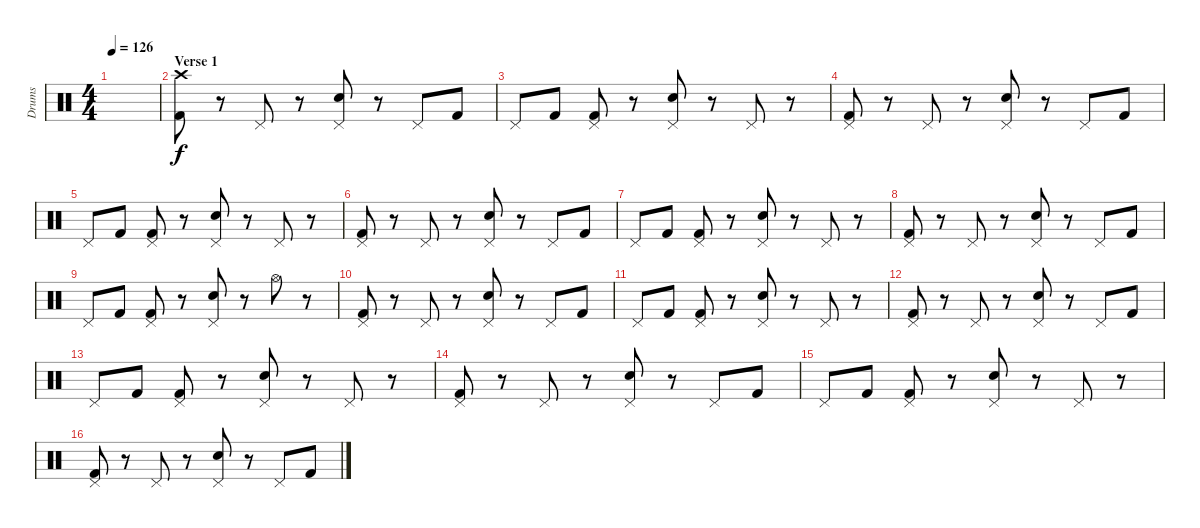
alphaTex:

\track ("Drums" "Drums") {instrument percussion}
\staff {score}
\articulation defaults
\ts (4 4)
\tempo 126
\clef neutral
\ks c
|
\section ("" "Verse 1")
("Crash high (hit)" "Kick (hit) 2").8 r.8 "Pedal Hi-Hat (hit)".8 r.8 ("Pedal Hi-Hat (hit)" "Electric Snare (hit)").8 r.8 "Pedal Hi-Hat (hit)".8 "Kick (hit) 2".8 |
"Pedal Hi-Hat (hit)".8 "Kick (hit) 2".8 ("Pedal Hi-Hat (hit)" "Kick (hit) 2").8 r.8 ("Pedal Hi-Hat (hit)" "Electric Snare (hit)").8 r.8 "Pedal Hi-Hat (hit)".8 r.8 |
("Pedal Hi-Hat (hit)" "Kick (hit) 2").8 r.8 "Pedal Hi-Hat (hit)".8 r.8 ("Pedal Hi-Hat (hit)" "Electric Snare (hit)").8 r.8 "Pedal Hi-Hat (hit)".8 "Kick (hit) 2".8 |
"Pedal Hi-Hat (hit)".8 "Kick (hit) 2".8 ("Pedal Hi-Hat (hit)" "Kick (hit) 2").8 r.8 ("Pedal Hi-Hat (hit)" "Electric Snare (hit)").8 r.8 "Pedal Hi-Hat (hit)".8 r.8 |
("Pedal Hi-Hat (hit)" "Kick (hit) 2").8 r.8 "Pedal Hi-Hat (hit)".8 r.8 ("Pedal Hi-Hat (hit)" "Electric Snare (hit)").8 r.8 "Pedal Hi-Hat (hit)".8 "Kick (hit) 2".8 |
"Pedal Hi-Hat (hit)".8 "Kick (hit) 2".8 ("Pedal Hi-Hat (hit)" "Kick (hit) 2").8 r.8 ("Pedal Hi-Hat (hit)" "Electric Snare (hit)").8 r.8 "Pedal Hi-Hat (hit)".8 r.8 |
("Pedal Hi-Hat (hit)" "Kick (hit) 2").8 r.8 "Pedal Hi-Hat (hit)".8 r.8 ("Pedal Hi-Hat (hit)" "Electric Snare (hit)").8 r.8 "Pedal Hi-Hat (hit)".8 "Kick (hit) 2".8 |
"Pedal Hi-Hat (hit)".8 "Kick (hit) 2".8 ("Pedal Hi-Hat (hit)" "Kick (hit) 2").8 r.8 ("Pedal Hi-Hat (hit)" "Electric Snare (hit)").8 r.8 "Hi-Hat (open)".8 r.8 |
("Pedal Hi-Hat (hit)" "Kick (hit) 2").8 r.8 "Pedal Hi-Hat (hit)".8 r.8 ("Pedal Hi-Hat (hit)" "Electric Snare (hit)").8 r.8 "Pedal Hi-Hat (hit)".8 "Kick (hit) 2".8 |
"Pedal Hi-Hat (hit)".8 "Kick (hit) 2".8 ("Pedal Hi-Hat (hit)" "Kick (hit) 2").8 r.8 ("Pedal Hi-Hat (hit)" "Electric Snare (hit)").8 r.8 "Pedal Hi-Hat (hit)".8 r.8 |
("Pedal Hi-Hat (hit)" "Kick (hit) 2").8 r.8 "Pedal Hi-Hat (hit)".8 r.8 ("Pedal Hi-Hat (hit)" "Electric Snare (hit)").8 r.8 "Pedal Hi-Hat (hit)".8 "Kick (hit) 2".8 |
"Pedal Hi-Hat (hit)".8 "Kick (hit) 2".8 ("Pedal Hi-Hat (hit)" "Kick (hit) 2").8 r.8 ("Pedal Hi-Hat (hit)" "Electric Snare (hit)").8 r.8 "Pedal Hi-Hat (hit)".8 r.8 |
("Pedal Hi-Hat (hit)" "Kick (hit) 2").8 r.8 "Pedal Hi-Hat (hit)".8 r.8 ("Pedal Hi-Hat (hit)" "Electric Snare (hit)").8 r.8 "Pedal Hi-Hat (hit)".8 "Kick (hit) 2".8 |
"Pedal Hi-Hat (hit)".8 "Kick (hit) 2".8 ("Pedal Hi-Hat (hit)" "Kick (hit) 2").8 r.8 ("Pedal Hi-Hat (hit)" "Electric Snare (hit)").8 r.8 "Pedal Hi-Hat (hit)".8 r.8 |
("Pedal Hi-Hat (hit)" "Kick (hit) 2").8 r.8 "Pedal Hi-Hat (hit)".8 r.8 ("Pedal Hi-Hat (hit)" "Electric Snare (hit)").8 r.8 "Pedal Hi-Hat (hit)".8 "Kick (hit) 2".8
